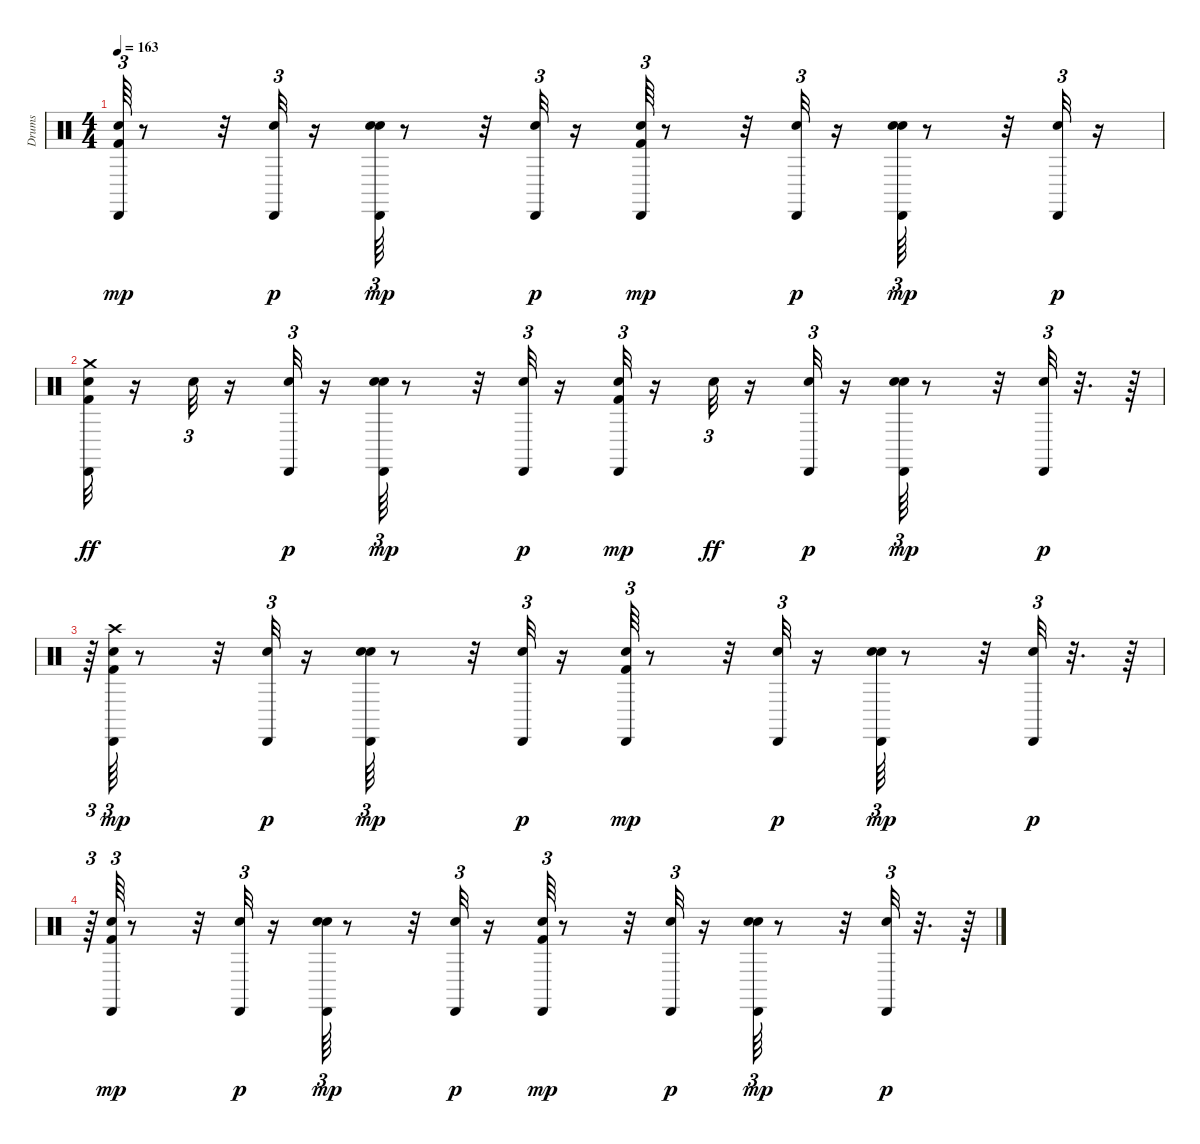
\track ("Drums               " "Drums     ") {instrument percussion}
\staff {score}
\articulation defaults
\ts (4 4)
\tempo 163
\clef neutral
\ks c
("Kick (hit) 2" "Snare (hit) 2" "Cabasa (hit)").64{tu (3 2) dy mp} r.8 r.32 ("Snare (hit) 2" "Cabasa (hit)").32{tu (3 2) dy p} r.16 ("Snare (hit) 2" "Hand Clap (hit)" "Cabasa (hit)").64{tu (3 2) dy mp} r.8 r.32 ("Snare (hit) 2" "Cabasa (hit)").32{tu (3 2) dy p} r.16 ("Kick (hit) 2" "Snare (hit) 2" "Cabasa (hit)").64{tu (3 2) dy mp} r.8 r.32 ("Snare (hit) 2" "Cabasa (hit)").32{tu (3 2) dy p} r.16 ("Snare (hit) 2" "Hand Clap (hit)" "Cabasa (hit)").64{tu (3 2) dy mp} r.8 r.32 ("Snare (hit) 2" "Cabasa (hit)").32{tu (3 2) dy p} r.16 |
("Kick (hit) 2" "Snare (hit) 2" "Cabasa (hit)" "Crash medium (hit)").32{dy ff} r.16 "Snare (hit) 2".32{tu (3 2)} r.16 ("Snare (hit) 2" "Cabasa (hit)").32{tu (3 2) dy p} r.16 ("Snare (hit) 2" "Hand Clap (hit)" "Cabasa (hit)").64{tu (3 2) dy mp} r.8 r.32 ("Snare (hit) 2" "Cabasa (hit)").32{tu (3 2) dy p} r.16 ("Kick (hit) 2" "Snare (hit) 2" "Cabasa (hit)").32{tu (3 2) dy mp} r.16 "Snare (hit) 2".32{tu (3 2) dy ff} r.16 ("Snare (hit) 2" "Cabasa (hit)").32{tu (3 2) dy p} r.16 ("Snare (hit) 2" "Hand Clap (hit)" "Cabasa (hit)").64{tu (3 2) dy mp} r.8 r.32 ("Snare (hit) 2" "Cabasa (hit)").32{tu (3 2) dy p} r.32{d} r.64 |
r.64{tu (3 2)} ("Kick (hit) 2" "Snare (hit) 2" "Crash high (hit)" "Cabasa (hit)").64{tu (3 2) dy mp} r.8 r.32 ("Snare (hit) 2" "Cabasa (hit)").32{tu (3 2) dy p} r.16 ("Snare (hit) 2" "Hand Clap (hit)" "Cabasa (hit)").64{tu (3 2) dy mp} r.8 r.32 ("Snare (hit) 2" "Cabasa (hit)").32{tu (3 2) dy p} r.16 ("Kick (hit) 2" "Snare (hit) 2" "Cabasa (hit)").64{tu (3 2) dy mp} r.8 r.32 ("Snare (hit) 2" "Cabasa (hit)").32{tu (3 2) dy p} r.16 ("Snare (hit) 2" "Hand Clap (hit)" "Cabasa (hit)").64{tu (3 2) dy mp} r.8 r.32 ("Snare (hit) 2" "Cabasa (hit)").32{tu (3 2) dy p} r.32{d} r.64 |
r.64{tu (3 2)} ("Kick (hit) 2" "Snare (hit) 2" "Cabasa (hit)").64{tu (3 2) dy mp} r.8 r.32 ("Snare (hit) 2" "Cabasa (hit)").32{tu (3 2) dy p} r.16 ("Snare (hit) 2" "Hand Clap (hit)" "Cabasa (hit)").64{tu (3 2) dy mp} r.8 r.32 ("Snare (hit) 2" "Cabasa (hit)").32{tu (3 2) dy p} r.16 ("Kick (hit) 2" "Snare (hit) 2" "Cabasa (hit)").64{tu (3 2) dy mp} r.8 r.32 ("Snare (hit) 2" "Cabasa (hit)").32{tu (3 2) dy p} r.16 ("Snare (hit) 2" "Hand Clap (hit)" "Cabasa (hit)").64{tu (3 2) dy mp} r.8 r.32 ("Snare (hit) 2" "Cabasa (hit)").32{tu (3 2) dy p} r.32{d} r.64
